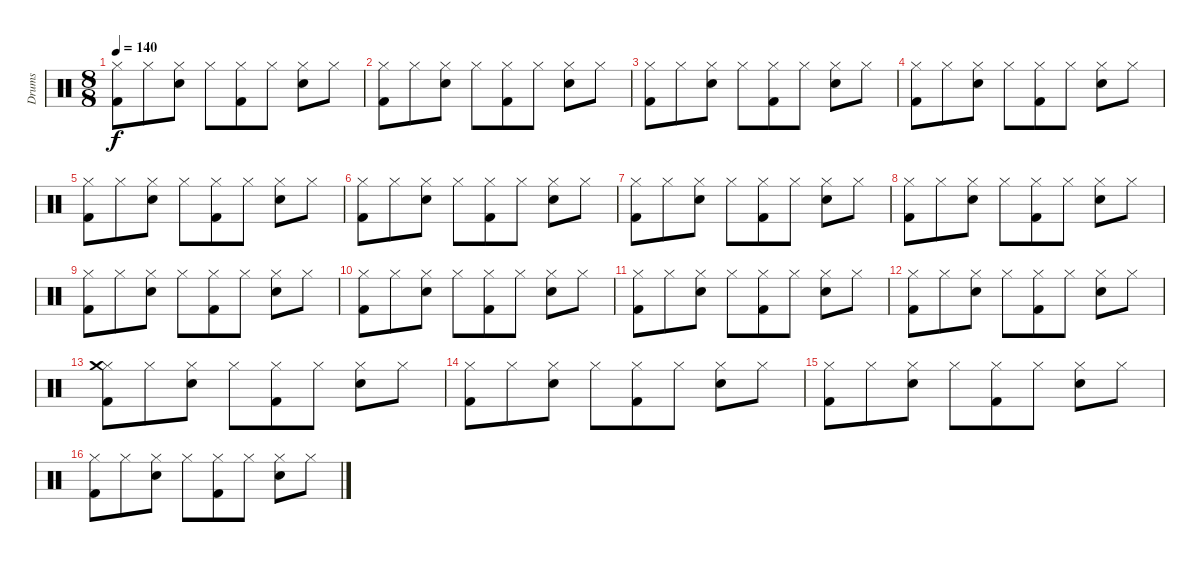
\track ("Drums" "Drums") {instrument percussion}
\staff {score}
\articulation defaults
\ts (8 8)
\tempo 140
\clef neutral
\ks c
("Hi-Hat (closed)" "Kick (hit) 2").8{dy f} "Hi-Hat (closed)".8 ("Hi-Hat (closed)" "Snare (hit) 2").8 "Hi-Hat (closed)".8 ("Hi-Hat (closed)" "Kick (hit) 2").8 "Hi-Hat (closed)".8 ("Hi-Hat (closed)" "Snare (hit) 2").8 "Hi-Hat (closed)".8 |
("Hi-Hat (closed)" "Kick (hit) 2").8 "Hi-Hat (closed)".8 ("Hi-Hat (closed)" "Snare (hit) 2").8 "Hi-Hat (closed)".8 ("Hi-Hat (closed)" "Kick (hit) 2").8 "Hi-Hat (closed)".8 ("Hi-Hat (closed)" "Snare (hit) 2").8 "Hi-Hat (closed)".8 |
("Hi-Hat (closed)" "Kick (hit) 2").8 "Hi-Hat (closed)".8 ("Hi-Hat (closed)" "Snare (hit) 2").8 "Hi-Hat (closed)".8 ("Hi-Hat (closed)" "Kick (hit) 2").8 "Hi-Hat (closed)".8 ("Hi-Hat (closed)" "Snare (hit) 2").8 "Hi-Hat (closed)".8 |
("Hi-Hat (closed)" "Kick (hit) 2").8 "Hi-Hat (closed)".8 ("Hi-Hat (closed)" "Snare (hit) 2").8 "Hi-Hat (closed)".8 ("Hi-Hat (closed)" "Kick (hit) 2").8 "Hi-Hat (closed)".8 ("Hi-Hat (closed)" "Snare (hit) 2").8 "Hi-Hat (closed)".8 |
("Hi-Hat (closed)" "Kick (hit) 2").8 "Hi-Hat (closed)".8 ("Hi-Hat (closed)" "Snare (hit) 2").8 "Hi-Hat (closed)".8 ("Hi-Hat (closed)" "Kick (hit) 2").8 "Hi-Hat (closed)".8 ("Hi-Hat (closed)" "Snare (hit) 2").8 "Hi-Hat (closed)".8 |
("Hi-Hat (closed)" "Kick (hit) 2").8 "Hi-Hat (closed)".8 ("Hi-Hat (closed)" "Snare (hit) 2").8 "Hi-Hat (closed)".8 ("Hi-Hat (closed)" "Kick (hit) 2").8 "Hi-Hat (closed)".8 ("Hi-Hat (closed)" "Snare (hit) 2").8 "Hi-Hat (closed)".8 |
("Hi-Hat (closed)" "Kick (hit) 2").8 "Hi-Hat (closed)".8 ("Hi-Hat (closed)" "Snare (hit) 2").8 "Hi-Hat (closed)".8 ("Hi-Hat (closed)" "Kick (hit) 2").8 "Hi-Hat (closed)".8 ("Hi-Hat (closed)" "Snare (hit) 2").8 "Hi-Hat (closed)".8 |
("Hi-Hat (closed)" "Kick (hit) 2").8 "Hi-Hat (closed)".8 ("Hi-Hat (closed)" "Snare (hit) 2").8 "Hi-Hat (closed)".8 ("Hi-Hat (closed)" "Kick (hit) 2").8 "Hi-Hat (closed)".8 ("Hi-Hat (closed)" "Snare (hit) 2").8 "Hi-Hat (closed)".8 |
("Hi-Hat (closed)" "Kick (hit) 2").8 "Hi-Hat (closed)".8 ("Hi-Hat (closed)" "Snare (hit) 2").8 "Hi-Hat (closed)".8 ("Hi-Hat (closed)" "Kick (hit) 2").8 "Hi-Hat (closed)".8 ("Hi-Hat (closed)" "Snare (hit) 2").8 "Hi-Hat (closed)".8 |
("Hi-Hat (closed)" "Kick (hit) 2").8 "Hi-Hat (closed)".8 ("Hi-Hat (closed)" "Snare (hit) 2").8 "Hi-Hat (closed)".8 ("Hi-Hat (closed)" "Kick (hit) 2").8 "Hi-Hat (closed)".8 ("Hi-Hat (closed)" "Snare (hit) 2").8 "Hi-Hat (closed)".8 |
("Hi-Hat (closed)" "Kick (hit) 2").8 "Hi-Hat (closed)".8 ("Hi-Hat (closed)" "Snare (hit) 2").8 "Hi-Hat (closed)".8 ("Hi-Hat (closed)" "Kick (hit) 2").8 "Hi-Hat (closed)".8 ("Hi-Hat (closed)" "Snare (hit) 2").8 "Hi-Hat (closed)".8 |
("Hi-Hat (closed)" "Kick (hit) 2").8 "Hi-Hat (closed)".8 ("Hi-Hat (closed)" "Snare (hit) 2").8 "Hi-Hat (closed)".8 ("Hi-Hat (closed)" "Kick (hit) 2").8 "Hi-Hat (closed)".8 ("Hi-Hat (closed)" "Snare (hit) 2").8 "Hi-Hat (closed)".8 |
("Hi-Hat (closed)" "Kick (hit) 2" "Crash medium (hit)").8 "Hi-Hat (closed)".8 ("Hi-Hat (closed)" "Snare (hit) 2").8 "Hi-Hat (closed)".8 ("Hi-Hat (closed)" "Kick (hit) 2").8 "Hi-Hat (closed)".8 ("Hi-Hat (closed)" "Snare (hit) 2").8 "Hi-Hat (closed)".8 |
("Hi-Hat (closed)" "Kick (hit) 2").8 "Hi-Hat (closed)".8 ("Hi-Hat (closed)" "Snare (hit) 2").8 "Hi-Hat (closed)".8 ("Hi-Hat (closed)" "Kick (hit) 2").8 "Hi-Hat (closed)".8 ("Hi-Hat (closed)" "Snare (hit) 2").8 "Hi-Hat (closed)".8 |
("Hi-Hat (closed)" "Kick (hit) 2").8 "Hi-Hat (closed)".8 ("Hi-Hat (closed)" "Snare (hit) 2").8 "Hi-Hat (closed)".8 ("Hi-Hat (closed)" "Kick (hit) 2").8 "Hi-Hat (closed)".8 ("Hi-Hat (closed)" "Snare (hit) 2").8 "Hi-Hat (closed)".8 |
("Hi-Hat (closed)" "Kick (hit) 2").8 "Hi-Hat (closed)".8 ("Hi-Hat (closed)" "Snare (hit) 2").8 "Hi-Hat (closed)".8 ("Hi-Hat (closed)" "Kick (hit) 2").8 "Hi-Hat (closed)".8 ("Hi-Hat (closed)" "Snare (hit) 2").8 "Hi-Hat (closed)".8
